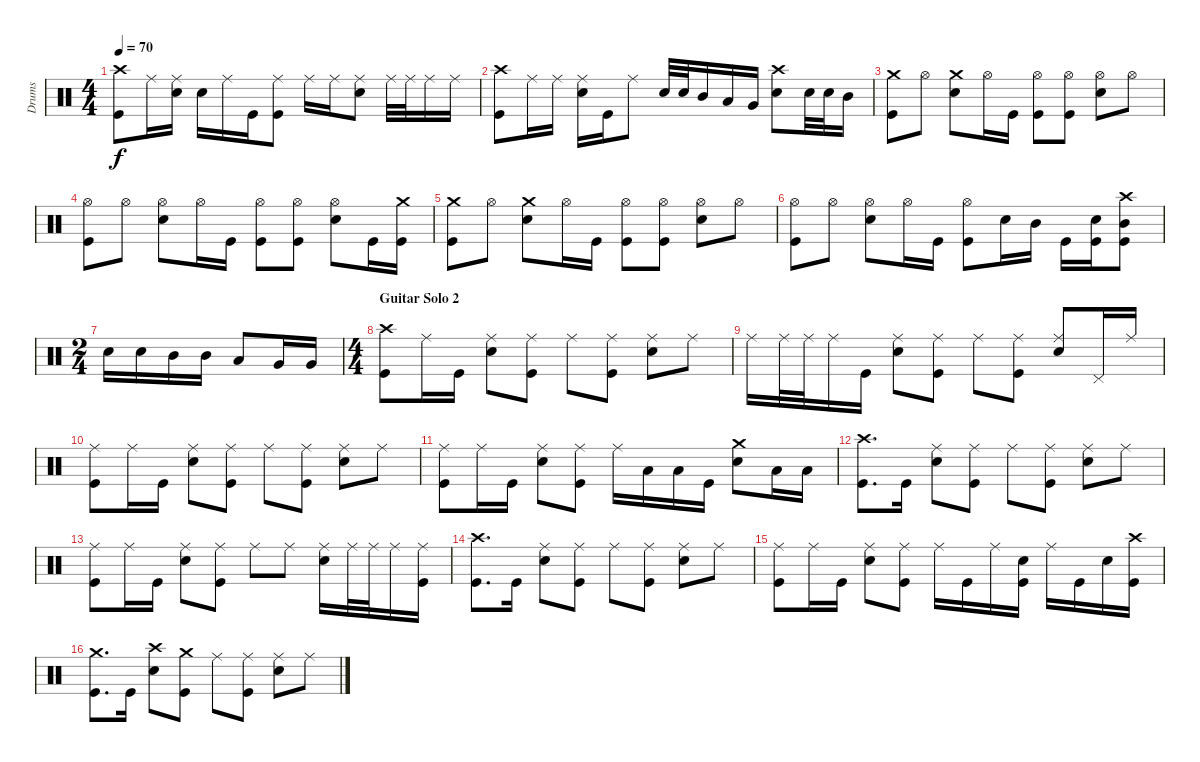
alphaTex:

\track ("Drums" "Drums") {instrument percussion}
\staff {score}
\articulation defaults
\ts (4 4)
\tempo 70
\clef neutral
\ks c
("Crash high (hit)" "Kick (hit)").8{dy f} "Ride (middle)".16 ("Ride (middle)" "Snare (hit) 2").16 "Snare (hit) 2".16 "Ride (middle)".16 "Kick (hit)".16 ("Ride (middle)" "Kick (hit)").8 "Ride (middle)".16 "Ride (middle)".16 ("Ride (middle)" "Snare (hit) 2").8 "Ride (middle)".32 "Ride (middle)".32 "Ride (middle)".16 "Ride (middle)".16 |
("Crash high (hit)" "Kick (hit)").8 "Ride (middle)".16 "Ride (middle)".16 ("Ride (middle)" "Snare (hit) 2").16 "Kick (hit)".16 "Ride (middle)".8 "Snare (hit) 2".32 "Snare (hit) 2".32 "Mid Tom (hit)".16 "Low Tom (hit)".16 "Very Low Tom (hit)".16 ("Crash high (hit)" "Snare (hit) 2").8 "Snare (hit) 2".32 "Snare (hit) 2".32 "Mid Tom (hit)".16 |
("Crash medium (hit)" "Kick (hit)").8 "Hi-Hat (open)".8 ("Crash medium (hit)" "Snare (hit) 2").8 "Hi-Hat (open)".16 "Kick (hit)".16 ("Hi-Hat (open)" "Kick (hit)").8 ("Hi-Hat (open)" "Kick (hit)").8 ("Hi-Hat (open)" "Snare (hit) 2").8 "Hi-Hat (open)".8 |
("Hi-Hat (open)" "Kick (hit)").8 "Hi-Hat (open)".8 ("Hi-Hat (open)" "Snare (hit) 2").8 "Hi-Hat (open)".16 "Kick (hit)".16 ("Hi-Hat (open)" "Kick (hit)").8 ("Hi-Hat (open)" "Kick (hit)").8 ("Hi-Hat (open)" "Snare (hit) 2").8 "Kick (hit)".16 ("Crash medium (hit)" "Kick (hit)").16 |
("Crash medium (hit)" "Kick (hit)").8 "Hi-Hat (open)".8 ("Crash medium (hit)" "Snare (hit) 2").8 "Hi-Hat (open)".16 "Kick (hit)".16 ("Hi-Hat (open)" "Kick (hit)").8 ("Hi-Hat (open)" "Kick (hit)").8 ("Hi-Hat (open)" "Snare (hit) 2").8 "Hi-Hat (open)".8 |
("Hi-Hat (open)" "Kick (hit)").8 "Hi-Hat (open)".8 ("Hi-Hat (open)" "Snare (hit) 2").8 "Hi-Hat (open)".16 "Kick (hit)".16 ("Hi-Hat (open)" "Kick (hit)").8 "Snare (hit) 2".16 "Mid Tom (hit)".16 "Kick (hit)".16 ("Snare (hit) 2" "Kick (hit)").16 ("Crash high (hit)" "Kick (hit)" "Mid Tom (hit)").8 |
\ts (2 4)
"Snare (hit) 2".16 "Snare (hit) 2".16 "Mid Tom (hit)".16 "Mid Tom (hit)".16 "Low Tom (hit)".8 "Very Low Tom (hit)".16 "Very Low Tom (hit)".16 |
\ts (4 4)
\section ("" "Guitar Solo 2")
("Crash high (hit)" "Kick (hit)").8 "Ride (middle)".16 "Kick (hit)".16 ("Ride (middle)" "Snare (hit) 2").8 ("Ride (middle)" "Kick (hit)").8 "Ride (middle)".8 ("Ride (middle)" "Kick (hit)").8 ("Ride (middle)" "Snare (hit) 2").8 "Ride (middle)".8 |
"Ride (middle)".16 "Ride (middle)".32 "Ride (middle)".32 "Ride (middle)".16 "Kick (hit)".16 ("Ride (middle)" "Snare (hit) 2").8 ("Ride (middle)" "Kick (hit)").8 "Ride (middle)".8 ("Ride (middle)" "Kick (hit)").8 ("Ride (middle)" "Snare (hit) 2").8 "Pedal Hi-Hat (hit)".16 "Ride (middle)".16 |
("Ride (middle)" "Kick (hit)").8 "Ride (middle)".16 "Kick (hit)".16 ("Ride (middle)" "Snare (hit) 2").8 ("Ride (middle)" "Kick (hit)").8 "Ride (middle)".8 ("Ride (middle)" "Kick (hit)").8 ("Ride (middle)" "Snare (hit) 2").8 "Ride (middle)".8 |
("Ride (middle)" "Kick (hit)").8 "Ride (middle)".16 "Kick (hit)".16 ("Ride (middle)" "Snare (hit) 2").8 ("Ride (middle)" "Kick (hit)").8 "Ride (middle)".16 "Low Tom (hit)".16 "Low Tom (hit)".16 "Kick (hit)".16 ("Crash medium (hit)" "Snare (hit) 2").8 "Low Tom (hit)".16 "Low Tom (hit)".16 |
("Crash high (hit)" "Kick (hit)").8{d} "Kick (hit)".16 ("Ride (middle)" "Snare (hit) 2").8 ("Ride (middle)" "Kick (hit)").8 "Ride (middle)".8 ("Ride (middle)" "Kick (hit)").8 ("Ride (middle)" "Snare (hit) 2").8 "Ride (middle)".8 |
("Ride (middle)" "Kick (hit)").8 "Ride (middle)".16 "Kick (hit)".16 ("Ride (middle)" "Snare (hit) 2").8 ("Ride (middle)" "Kick (hit)").8 "Ride (middle)".8 "Ride (middle)".8 ("Ride (middle)" "Snare (hit) 2").16 "Ride (middle)".32 "Ride (middle)".32 "Ride (middle)".16 ("Ride (middle)" "Kick (hit)").16 |
("Crash high (hit)" "Kick (hit)").8{d} "Kick (hit)".16 ("Ride (middle)" "Snare (hit) 2").8 ("Ride (middle)" "Kick (hit)").8 "Ride (middle)".8 ("Ride (middle)" "Kick (hit)").8 ("Ride (middle)" "Snare (hit) 2").8 "Ride (middle)".8 |
("Ride (middle)" "Kick (hit)").8 "Ride (middle)".16 "Kick (hit)".16 ("Ride (middle)" "Snare (hit) 2").8 ("Ride (middle)" "Kick (hit)").8 "Ride (middle)".16 "Kick (hit)".16 "Ride (middle)".16 ("Snare (hit) 2" "Kick (hit)").16 "Ride (middle)".16 "Kick (hit)".16 "Snare (hit) 2".16 ("Crash high (hit)" "Kick (hit)").16 |
("Crash medium (hit)" "Kick (hit)").8{d} "Kick (hit)".16 ("Crash high (hit)" "Snare (hit) 2").8 ("Crash medium (hit)" "Kick (hit)").8 "Ride (middle)".8 ("Ride (middle)" "Kick (hit)").8 ("Ride (middle)" "Snare (hit) 2").8 "Ride (middle)".8
